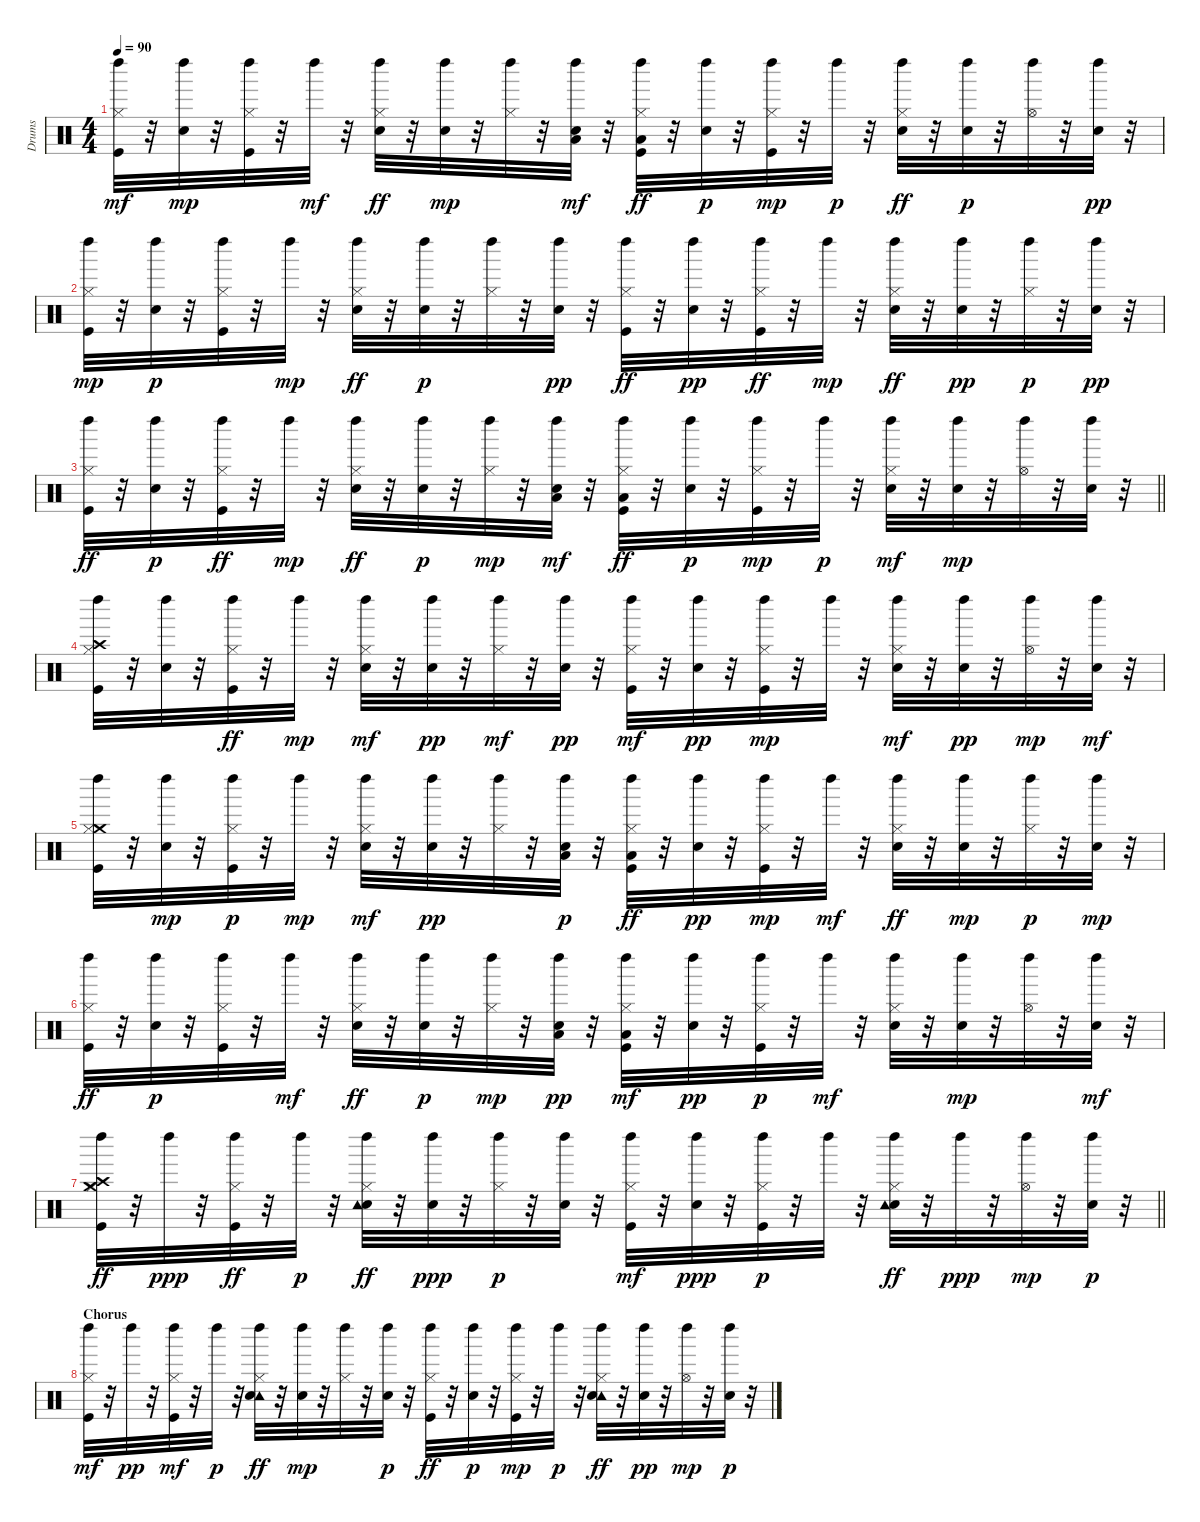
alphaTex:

\track ("Drums" "Drums") {instrument percussion}
\staff {score}
\articulation defaults
\ts (4 4)
\tempo 90
\clef neutral
\ks c
("Hi-Hat (closed)" "Kick (hit)" "Left Maraca (hit)").32{dy mf} r.32 ("Electric Snare (hit)" "Left Maraca (hit)").32{dy mp} r.32 ("Hi-Hat (closed)" "Kick (hit)" "Left Maraca (hit)").32 r.32 "Left Maraca (hit)".32{dy mf} r.32 ("Electric Snare (hit)" "Left Maraca (hit)" "Hi-Hat (closed)").32{dy ff} r.32 ("Electric Snare (hit)" "Left Maraca (hit)").32{dy mp} r.32 ("Left Maraca (hit)" "Hi-Hat (closed)").32 r.32 ("Electric Snare (hit)" "Left Maraca (hit)" "Low Tom (hit)").32{dy mf} r.32 ("Kick (hit)" "Low Floor Tom (hit)" "Left Maraca (hit)" "Hi-Hat (closed)").32{dy ff} r.32 ("Electric Snare (hit)" "Left Maraca (hit)").32{dy p} r.32 ("Kick (hit)" "Left Maraca (hit)" "Hi-Hat (closed)").32{dy mp} r.32 "Left Maraca (hit)".32{dy p} r.32 ("Electric Snare (hit)" "Left Maraca (hit)" "Hi-Hat (closed)").32{dy ff} r.32 ("Electric Snare (hit)" "Left Maraca (hit)").32{dy p} r.32 ("Hi-Hat (open)" "Left Maraca (hit)").32 r.32 ("Left Maraca (hit)" "Electric Snare (hit)").32{dy pp} r.32 |
("Kick (hit)" "Left Maraca (hit)" "Hi-Hat (closed)").32{dy mp} r.32 ("Electric Snare (hit)" "Left Maraca (hit)").32{dy p} r.32 ("Kick (hit)" "Hi-Hat (closed)" "Left Maraca (hit)").32 r.32 "Left Maraca (hit)".32{dy mp} r.32 ("Electric Snare (hit)" "Left Maraca (hit)" "Hi-Hat (closed)").32{dy ff} r.32 ("Electric Snare (hit)" "Left Maraca (hit)").32{dy p} r.32 ("Hi-Hat (closed)" "Left Maraca (hit)").32 r.32 ("Left Maraca (hit)" "Electric Snare (hit)").32{dy pp} r.32 ("Kick (hit)" "Left Maraca (hit)" "Hi-Hat (closed)").32{dy ff} r.32 ("Left Maraca (hit)" "Electric Snare (hit)").32{dy pp} r.32 ("Left Maraca (hit)" "Hi-Hat (closed)" "Kick (hit)").32{dy ff} r.32 "Left Maraca (hit)".32{dy mp} r.32 ("Left Maraca (hit)" "Hi-Hat (closed)" "Electric Snare (hit)").32{dy ff} r.32 ("Left Maraca (hit)" "Electric Snare (hit)").32{dy pp} r.32 ("Left Maraca (hit)" "Hi-Hat (closed)").32{dy p} r.32 ("Left Maraca (hit)" "Electric Snare (hit)").32{dy pp} r.32 |
\barLineRight lightlight
("Left Maraca (hit)" "Hi-Hat (closed)" "Kick (hit)").32{dy ff} r.32 ("Electric Snare (hit)" "Left Maraca (hit)").32{dy p} r.32 ("Left Maraca (hit)" "Hi-Hat (closed)" "Kick (hit)").32{dy ff} r.32 "Left Maraca (hit)".32{dy mp} r.32 ("Electric Snare (hit)" "Left Maraca (hit)" "Hi-Hat (closed)").32{dy ff} r.32 ("Electric Snare (hit)" "Left Maraca (hit)").32{dy p} r.32 ("Hi-Hat (closed)" "Left Maraca (hit)").32{dy mp} r.32 ("Electric Snare (hit)" "Low Tom (hit)" "Left Maraca (hit)").32{dy mf} r.32 ("Kick (hit)" "Low Floor Tom (hit)" "Left Maraca (hit)" "Hi-Hat (closed)").32{dy ff} r.32 ("Electric Snare (hit)" "Left Maraca (hit)").32{dy p} r.32 ("Hi-Hat (closed)" "Kick (hit)" "Left Maraca (hit)").32{dy mp} r.32 "Left Maraca (hit)".32{dy p} r.32 ("Hi-Hat (closed)" "Electric Snare (hit)" "Left Maraca (hit)").32{dy mf} r.32 ("Electric Snare (hit)" "Left Maraca (hit)").32{dy mp} r.32 ("Hi-Hat (open)" "Left Maraca (hit)").32 r.32 ("Electric Snare (hit)" "Left Maraca (hit)").32 r.32 |
("Kick (hit)" "Left Maraca (hit)" "Crash high (hit)" "Hi-Hat (closed)").32 r.32 ("Electric Snare (hit)" "Left Maraca (hit)").32 r.32 ("Hi-Hat (closed)" "Left Maraca (hit)" "Kick (hit)").32{dy ff} r.32 "Left Maraca (hit)".32{dy mp} r.32 ("Hi-Hat (closed)" "Electric Snare (hit)" "Left Maraca (hit)").32{dy mf} r.32 ("Left Maraca (hit)" "Electric Snare (hit)").32{dy pp} r.32 ("Left Maraca (hit)" "Hi-Hat (closed)").32{dy mf} r.32 ("Left Maraca (hit)" "Electric Snare (hit)").32{dy pp} r.32 ("Kick (hit)" "Left Maraca (hit)" "Hi-Hat (closed)").32{dy mf} r.32 ("Left Maraca (hit)" "Electric Snare (hit)").32{dy pp} r.32 ("Hi-Hat (closed)" "Kick (hit)" "Left Maraca (hit)").32{dy mp} r.32 "Left Maraca (hit)".32 r.32 ("Hi-Hat (closed)" "Electric Snare (hit)" "Left Maraca (hit)").32{dy mf} r.32 ("Electric Snare (hit)" "Left Maraca (hit)").32{dy pp} r.32 ("Hi-Hat (open)" "Left Maraca (hit)").32{dy mp} r.32 ("Electric Snare (hit)" "Left Maraca (hit)").32{dy mf} r.32 |
("Kick (hit)" "Crash medium (hit)" "Hi-Hat (closed)" "Left Maraca (hit)").32 r.32 ("Electric Snare (hit)" "Left Maraca (hit)").32{dy mp} r.32 ("Kick (hit)" "Hi-Hat (closed)" "Left Maraca (hit)").32{dy p} r.32 "Left Maraca (hit)".32{dy mp} r.32 ("Hi-Hat (closed)" "Electric Snare (hit)" "Left Maraca (hit)").32{dy mf} r.32 ("Left Maraca (hit)" "Electric Snare (hit)").32{dy pp} r.32 ("Hi-Hat (closed)" "Left Maraca (hit)").32 r.32 ("Electric Snare (hit)" "Low Tom (hit)" "Left Maraca (hit)").32{dy p} r.32 ("Kick (hit)" "Low Floor Tom (hit)" "Left Maraca (hit)" "Hi-Hat (closed)").32{dy ff} r.32 ("Left Maraca (hit)" "Electric Snare (hit)").32{dy pp} r.32 ("Kick (hit)" "Hi-Hat (closed)" "Left Maraca (hit)").32{dy mp} r.32 "Left Maraca (hit)".32{dy mf} r.32 ("Electric Snare (hit)" "Left Maraca (hit)" "Hi-Hat (closed)").32{dy ff} r.32 ("Electric Snare (hit)" "Left Maraca (hit)").32{dy mp} r.32 ("Hi-Hat (closed)" "Left Maraca (hit)").32{dy p} r.32 ("Electric Snare (hit)" "Left Maraca (hit)").32{dy mp} r.32 |
("Kick (hit)" "Left Maraca (hit)" "Hi-Hat (closed)").32{dy ff} r.32 ("Electric Snare (hit)" "Left Maraca (hit)").32{dy p} r.32 ("Kick (hit)" "Hi-Hat (closed)" "Left Maraca (hit)").32 r.32 "Left Maraca (hit)".32{dy mf} r.32 ("Electric Snare (hit)" "Left Maraca (hit)" "Hi-Hat (closed)").32{dy ff} r.32 ("Electric Snare (hit)" "Left Maraca (hit)").32{dy p} r.32 ("Hi-Hat (closed)" "Left Maraca (hit)").32{dy mp} r.32 ("Low Tom (hit)" "Left Maraca (hit)" "Electric Snare (hit)").32{dy pp} r.32 ("Left Maraca (hit)" "Hi-Hat (closed)" "Kick (hit)" "Low Floor Tom (hit)").32{dy mf} r.32 ("Electric Snare (hit)" "Left Maraca (hit)").32{dy pp} r.32 ("Hi-Hat (closed)" "Kick (hit)" "Left Maraca (hit)").32{dy p} r.32 "Left Maraca (hit)".32{dy mf} r.32 ("Hi-Hat (closed)" "Electric Snare (hit)" "Left Maraca (hit)").32 r.32 ("Electric Snare (hit)" "Left Maraca (hit)").32{dy mp} r.32 ("Hi-Hat (open)" "Left Maraca (hit)").32 r.32 ("Electric Snare (hit)" "Left Maraca (hit)").32{dy mf} r.32 |
\barLineRight lightlight
("Kick (hit)" "Crash high (hit)" "Crash medium (hit)" "Left Maraca (hit)" "Hi-Hat (closed)").32{dy ff} r.32 "Left Maraca (hit)".32{dy ppp} r.32 ("Left Maraca (hit)" "Hi-Hat (closed)" "Kick (hit)").32{dy ff} r.32 "Left Maraca (hit)".32{dy p} r.32 ("Hi-Hat (closed)" "Electric Snare (hit)" "Tambourine (hit)" "Left Maraca (hit)").32{dy ff} r.32 ("Electric Snare (hit)" "Left Maraca (hit)").32{dy ppp} r.32 ("Hi-Hat (closed)" "Left Maraca (hit)").32{dy p} r.32 ("Electric Snare (hit)" "Left Maraca (hit)").32 r.32 ("Hi-Hat (closed)" "Kick (hit)" "Left Maraca (hit)").32{dy mf} r.32 ("Electric Snare (hit)" "Left Maraca (hit)").32{dy ppp} r.32 ("Hi-Hat (closed)" "Kick (hit)" "Left Maraca (hit)").32{dy p} r.32 "Left Maraca (hit)".32 r.32 ("Electric Snare (hit)" "Hi-Hat (closed)" "Tambourine (hit)" "Left Maraca (hit)").32{dy ff} r.32 "Left Maraca (hit)".32{dy ppp} r.32 ("Hi-Hat (open)" "Left Maraca (hit)").32{dy mp} r.32 ("Electric Snare (hit)" "Left Maraca (hit)").32{dy p} r.32 |
\section ("" "Chorus")
("Kick (hit)" "Left Maraca (hit)" "Hi-Hat (closed)").32{dy mf} r.32 "Left Maraca (hit)".32{dy pp} r.32 ("Kick (hit)" "Left Maraca (hit)" "Hi-Hat (closed)").32{dy mf} r.32 "Left Maraca (hit)".32{dy p} r.32 ("Tambourine (hit)" "Electric Snare (hit)" "Hi-Hat (closed)" "Left Maraca (hit)").32{dy ff} r.32 ("Left Maraca (hit)" "Electric Snare (hit)").32{dy mp} r.32 ("Hi-Hat (closed)" "Left Maraca (hit)").32 r.32 ("Electric Snare (hit)" "Left Maraca (hit)").32{dy p} r.32 ("Hi-Hat (closed)" "Kick (hit)" "Left Maraca (hit)").32{dy ff} r.32 ("Electric Snare (hit)" "Left Maraca (hit)").32{dy p} r.32 ("Hi-Hat (closed)" "Kick (hit)" "Left Maraca (hit)").32{dy mp} r.32 "Left Maraca (hit)".32{dy p} r.32 ("Tambourine (hit)" "Electric Snare (hit)" "Hi-Hat (closed)" "Left Maraca (hit)").32{dy ff} r.32 ("Electric Snare (hit)" "Left Maraca (hit)").32{dy pp} r.32 ("Hi-Hat (open)" "Left Maraca (hit)").32{dy mp} r.32 ("Electric Snare (hit)" "Left Maraca (hit)").32{dy p} r.32
